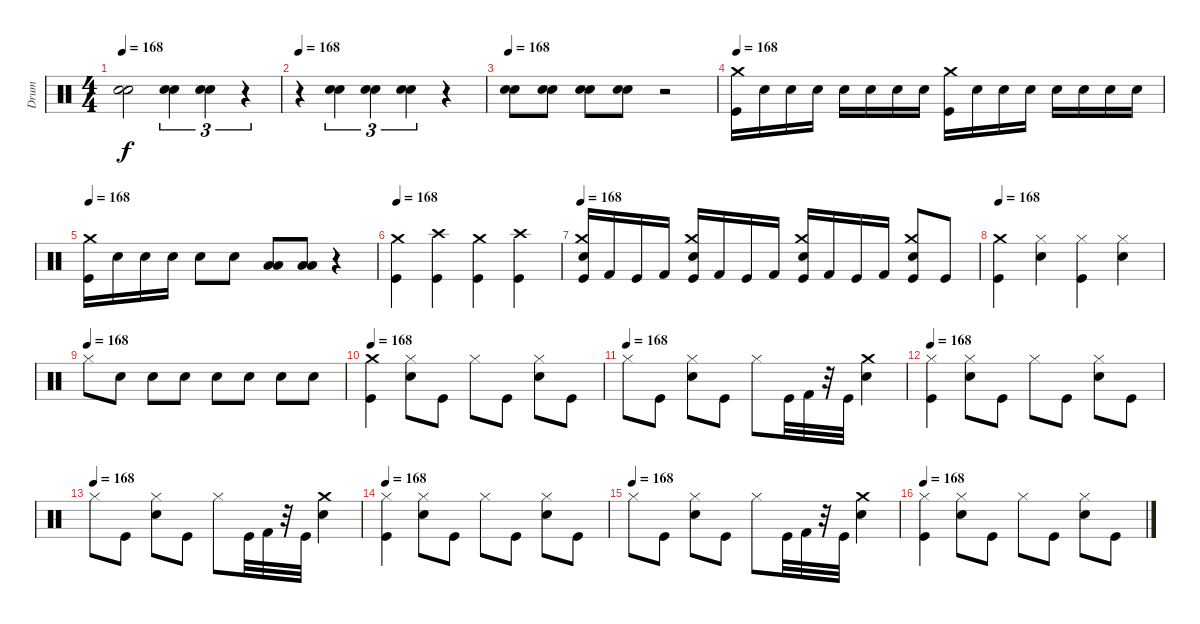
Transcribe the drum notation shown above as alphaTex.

\track ("Drum" "Drum") {instrument percussion}
\staff {score}
\articulation defaults
\ts (4 4)
\tempo 168
\clef neutral
\ks c
("Snare (hit) 2" "Snare (hit) 2").2{dy f} ("Snare (hit) 2" "Snare (hit) 2").4{tu (3 2)} ("Snare (hit) 2" "Snare (hit) 2").4{tu (3 2)} r.4{tu (3 2)} |
\tempo 168
r.4 ("Snare (hit) 2" "Snare (hit) 2").4{tu (3 2)} ("Snare (hit) 2" "Snare (hit) 2").4{tu (3 2)} ("Snare (hit) 2" "Snare (hit) 2").4{tu (3 2)} r.4 |
\tempo 168
("Snare (hit) 2" "Snare (hit) 2").8 ("Snare (hit) 2" "Snare (hit) 2").8 ("Snare (hit) 2" "Snare (hit) 2").8 ("Snare (hit) 2" "Snare (hit) 2").8 r.2 |
\tempo 168
("Crash medium (hit)" "Kick (hit)").16 "Snare (hit) 2".16 "Snare (hit) 2".16 "Snare (hit) 2".16 "Snare (hit) 2".16 "Snare (hit) 2".16 "Snare (hit) 2".16 "Snare (hit) 2".16 ("Crash medium (hit)" "Kick (hit)").16 "Snare (hit) 2".16 "Snare (hit) 2".16 "Snare (hit) 2".16 "Snare (hit) 2".16 "Snare (hit) 2".16 "Snare (hit) 2".16 "Snare (hit) 2".16 |
\tempo 168
("Crash medium (hit)" "Kick (hit)").16 "Snare (hit) 2".16 "Snare (hit) 2".16 "Snare (hit) 2".16 "Snare (hit) 2".8 "Snare (hit) 2".8 ("Low Tom (hit)" "Low Floor Tom (hit)").8 ("Low Tom (hit)" "Low Floor Tom (hit)").8 r.4 |
\tempo 168
("Crash medium (hit)" "Kick (hit)").4 ("Crash high (hit)" "Kick (hit)").4 ("Crash medium (hit)" "Kick (hit)").4 ("Crash high (hit)" "Kick (hit)").4 |
\tempo 168
("Crash medium (hit)" "Snare (hit) 2" "Kick (hit)").16 "Kick (hit) 2".16 "Kick (hit)".16 "Kick (hit) 2".16 ("Crash medium (hit)" "Snare (hit) 2" "Kick (hit)").16 "Kick (hit) 2".16 "Kick (hit)".16 "Kick (hit) 2".16 ("Crash medium (hit)" "Snare (hit) 2" "Kick (hit)").16 "Kick (hit) 2".16 "Kick (hit)".16 "Kick (hit) 2".16 ("Crash medium (hit)" "Snare (hit) 2" "Kick (hit)").8 "Kick (hit)".8 |
\tempo 168
("Crash medium (hit)" "Kick (hit)").4 ("Hi-Hat (closed)" "Snare (hit) 2").4 ("Hi-Hat (closed)" "Kick (hit)").4 ("Hi-Hat (closed)" "Snare (hit) 2").4 |
\tempo (168)
"Hi-Hat (closed)".8 "Snare (hit) 2".8 "Snare (hit) 2".8 "Snare (hit) 2".8 "Snare (hit) 2".8 "Snare (hit) 2".8 "Snare (hit) 2".8 "Snare (hit) 2".8 |
\tempo 168
("Crash medium (hit)" "Kick (hit)").4 ("Hi-Hat (closed)" "Snare (hit) 2").8 "Kick (hit)".8 "Hi-Hat (closed)".8 "Kick (hit)".8 ("Hi-Hat (closed)" "Snare (hit) 2").8 "Kick (hit)".8 |
\tempo (168)
"Hi-Hat (closed)".8 "Kick (hit)".8 ("Hi-Hat (closed)" "Snare (hit) 2").8 "Kick (hit)".8 "Hi-Hat (closed)".8 "Kick (hit)".32 "Kick (hit) 2".32 r.32 "Kick (hit)".32 ("Crash medium (hit)" "Snare (hit) 2").4 |
\tempo 168
("Hi-Hat (closed)" "Kick (hit)").4 ("Hi-Hat (closed)" "Snare (hit) 2").8 "Kick (hit)".8 "Hi-Hat (closed)".8 "Kick (hit)".8 ("Hi-Hat (closed)" "Snare (hit) 2").8 "Kick (hit)".8 |
\tempo (168)
"Hi-Hat (closed)".8 "Kick (hit)".8 ("Hi-Hat (closed)" "Snare (hit) 2").8 "Kick (hit)".8 "Hi-Hat (closed)".8 "Kick (hit)".32 "Kick (hit) 2".32 r.32 "Kick (hit)".32 ("Crash medium (hit)" "Snare (hit) 2").4 |
\tempo 168
("Hi-Hat (closed)" "Kick (hit)").4 ("Hi-Hat (closed)" "Snare (hit) 2").8 "Kick (hit)".8 "Hi-Hat (closed)".8 "Kick (hit)".8 ("Hi-Hat (closed)" "Snare (hit) 2").8 "Kick (hit)".8 |
\tempo (168)
"Hi-Hat (closed)".8 "Kick (hit)".8 ("Hi-Hat (closed)" "Snare (hit) 2").8 "Kick (hit)".8 "Hi-Hat (closed)".8 "Kick (hit)".32 "Kick (hit) 2".32 r.32 "Kick (hit)".32 ("Crash medium (hit)" "Snare (hit) 2").4 |
\tempo 168
("Hi-Hat (closed)" "Kick (hit)").4 ("Hi-Hat (closed)" "Snare (hit) 2").8 "Kick (hit)".8 "Hi-Hat (closed)".8 "Kick (hit)".8 ("Hi-Hat (closed)" "Snare (hit) 2").8 "Kick (hit)".8
